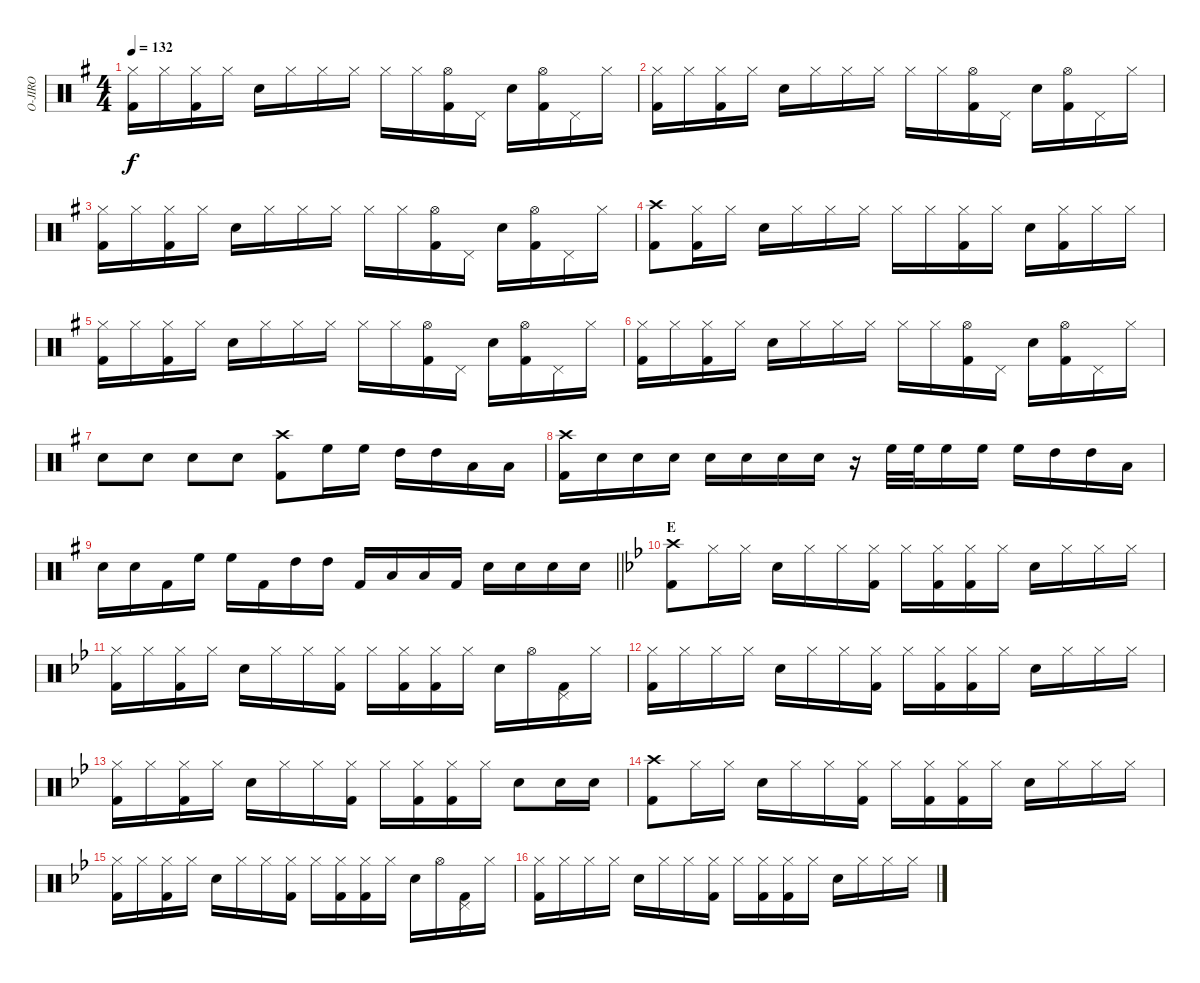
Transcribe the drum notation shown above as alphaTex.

\track ("O-JIRO" "O-JIRO") {instrument percussion}
\staff {score}
\articulation defaults
\ts (4 4)
\tempo 132
\clef neutral
\ks g
("Hi-Hat (closed)" "Kick (hit) 2").16{dy f} "Hi-Hat (closed)".16 ("Hi-Hat (closed)" "Kick (hit) 2").16 "Hi-Hat (closed)".16 "Snare (hit) 2".16 "Hi-Hat (closed)".16 "Hi-Hat (closed)".16 "Hi-Hat (closed)".16 "Hi-Hat (closed)".16 "Hi-Hat (closed)".16 ("Hi-Hat (open)" "Kick (hit) 2").16 "Pedal Hi-Hat (hit)".16 "Snare (hit) 2".16 ("Hi-Hat (open)" "Kick (hit) 2").16 "Pedal Hi-Hat (hit)".16 "Hi-Hat (closed)".16 |
("Hi-Hat (closed)" "Kick (hit) 2").16 "Hi-Hat (closed)".16 ("Hi-Hat (closed)" "Kick (hit) 2").16 "Hi-Hat (closed)".16 "Snare (hit) 2".16 "Hi-Hat (closed)".16 "Hi-Hat (closed)".16 "Hi-Hat (closed)".16 "Hi-Hat (closed)".16 "Hi-Hat (closed)".16 ("Hi-Hat (open)" "Kick (hit) 2").16 "Pedal Hi-Hat (hit)".16 "Snare (hit) 2".16 ("Hi-Hat (open)" "Kick (hit) 2").16 "Pedal Hi-Hat (hit)".16 "Hi-Hat (closed)".16 |
("Hi-Hat (closed)" "Kick (hit) 2").16 "Hi-Hat (closed)".16 ("Hi-Hat (closed)" "Kick (hit) 2").16 "Hi-Hat (closed)".16 "Snare (hit) 2".16 "Hi-Hat (closed)".16 "Hi-Hat (closed)".16 "Hi-Hat (closed)".16 "Hi-Hat (closed)".16 "Hi-Hat (closed)".16 ("Hi-Hat (open)" "Kick (hit) 2").16 "Pedal Hi-Hat (hit)".16 "Snare (hit) 2".16 ("Hi-Hat (open)" "Kick (hit) 2").16 "Pedal Hi-Hat (hit)".16 "Hi-Hat (closed)".16 |
("Crash high (hit)" "Kick (hit) 2").8 ("Hi-Hat (closed)" "Kick (hit) 2").16 "Hi-Hat (closed)".16 "Snare (hit) 2".16 "Hi-Hat (closed)".16 "Hi-Hat (closed)".16 "Hi-Hat (closed)".16 "Hi-Hat (closed)".16 "Hi-Hat (closed)".16 ("Hi-Hat (closed)" "Kick (hit) 2").16 "Hi-Hat (closed)".16 "Snare (hit) 2".16 ("Hi-Hat (closed)" "Kick (hit) 2").16 "Hi-Hat (closed)".16 "Hi-Hat (closed)".16 |
("Hi-Hat (closed)" "Kick (hit) 2").16 "Hi-Hat (closed)".16 ("Hi-Hat (closed)" "Kick (hit) 2").16 "Hi-Hat (closed)".16 "Snare (hit) 2".16 "Hi-Hat (closed)".16 "Hi-Hat (closed)".16 "Hi-Hat (closed)".16 "Hi-Hat (closed)".16 "Hi-Hat (closed)".16 ("Hi-Hat (open)" "Kick (hit) 2").16 "Pedal Hi-Hat (hit)".16 "Snare (hit) 2".16 ("Hi-Hat (open)" "Kick (hit) 2").16 "Pedal Hi-Hat (hit)".16 "Hi-Hat (closed)".16 |
("Hi-Hat (closed)" "Kick (hit) 2").16 "Hi-Hat (closed)".16 ("Hi-Hat (closed)" "Kick (hit) 2").16 "Hi-Hat (closed)".16 "Snare (hit) 2".16 "Hi-Hat (closed)".16 "Hi-Hat (closed)".16 "Hi-Hat (closed)".16 "Hi-Hat (closed)".16 "Hi-Hat (closed)".16 ("Hi-Hat (open)" "Kick (hit) 2").16 "Pedal Hi-Hat (hit)".16 "Snare (hit) 2".16 ("Hi-Hat (open)" "Kick (hit) 2").16 "Pedal Hi-Hat (hit)".16 "Hi-Hat (closed)".16 |
"Snare (hit) 2".8 "Snare (hit) 2".8 "Snare (hit) 2".8 "Snare (hit) 2".8 ("Crash high (hit)" "Kick (hit) 2").8 "High Floor Tom (hit)".16 "High Floor Tom (hit)".16 "High Tom (hit)".16 "High Tom (hit)".16 "Low Tom (hit)".16 "Low Tom (hit)".16 |
("Crash high (hit)" "Kick (hit) 2").16 "Snare (hit) 2".16 "Snare (hit) 2".16 "Snare (hit) 2".16 "Snare (hit) 2".16 "Snare (hit) 2".16 "Snare (hit) 2".16 "Snare (hit) 2".16 r.16 "High Floor Tom (hit)".32 "High Floor Tom (hit)".32 "High Floor Tom (hit)".16 "High Floor Tom (hit)".16 "High Floor Tom (hit)".16 "High Tom (hit)".16 "High Tom (hit)".16 "Low Tom (hit)".16 |
\barLineRight lightlight "Snare (hit) 2".16 "Snare (hit) 2".16 "Kick (hit) 2".16 "High Floor Tom (hit)".16 "High Floor Tom (hit)".16 "Kick (hit) 2".16 "High Tom (hit)".16 "High Tom (hit)".16 "Kick (hit) 2".16 "Low Tom (hit)".16 "Low Tom (hit)".16 "Kick (hit) 2".16 "Snare (hit) 2".16 "Snare (hit) 2".16 "Snare (hit) 2".16 "Snare (hit) 2".16
|
\section ("" "E")
\ks bb
("Crash high (hit)" "Kick (hit) 2").8 "Hi-Hat (closed)".16 "Hi-Hat (closed)".16 "Snare (hit) 2".16 "Hi-Hat (closed)".16 "Hi-Hat (closed)".16 ("Hi-Hat (closed)" "Kick (hit) 2").16 "Hi-Hat (closed)".16 ("Hi-Hat (closed)" "Kick (hit) 2").16 ("Hi-Hat (closed)" "Kick (hit) 2").16 "Hi-Hat (closed)".16 "Snare (hit) 2".16 "Hi-Hat (closed)".16 "Hi-Hat (closed)".16 "Hi-Hat (closed)".16 |
("Hi-Hat (closed)" "Kick (hit) 2").16 "Hi-Hat (closed)".16 ("Hi-Hat (closed)" "Kick (hit) 2").16 "Hi-Hat (closed)".16 "Snare (hit) 2".16 "Hi-Hat (closed)".16 "Hi-Hat (closed)".16 ("Hi-Hat (closed)" "Kick (hit) 2").16 "Hi-Hat (closed)".16 ("Hi-Hat (closed)" "Kick (hit) 2").16 ("Hi-Hat (closed)" "Kick (hit) 2").16 "Hi-Hat (closed)".16 "Snare (hit) 2".16 "Hi-Hat (open)".16 ("Pedal Hi-Hat (hit)" "Kick (hit) 2").16 "Hi-Hat (closed)".16 |
("Hi-Hat (closed)" "Kick (hit) 2").16 "Hi-Hat (closed)".16 "Hi-Hat (closed)".16 "Hi-Hat (closed)".16 "Snare (hit) 2".16 "Hi-Hat (closed)".16 "Hi-Hat (closed)".16 ("Hi-Hat (closed)" "Kick (hit) 2").16 "Hi-Hat (closed)".16 ("Hi-Hat (closed)" "Kick (hit) 2").16 ("Hi-Hat (closed)" "Kick (hit) 2").16 "Hi-Hat (closed)".16 "Snare (hit) 2".16 "Hi-Hat (closed)".16 "Hi-Hat (closed)".16 "Hi-Hat (closed)".16 |
("Hi-Hat (closed)" "Kick (hit) 2").16 "Hi-Hat (closed)".16 ("Hi-Hat (closed)" "Kick (hit) 2").16 "Hi-Hat (closed)".16 "Snare (hit) 2".16 "Hi-Hat (closed)".16 "Hi-Hat (closed)".16 ("Hi-Hat (closed)" "Kick (hit) 2").16 "Hi-Hat (closed)".16 ("Hi-Hat (closed)" "Kick (hit) 2").16 ("Hi-Hat (closed)" "Kick (hit) 2").16 "Hi-Hat (closed)".16 "Snare (hit) 2".8 "Snare (hit) 2".16 "Snare (hit) 2".16 |
("Crash high (hit)" "Kick (hit) 2").8 "Hi-Hat (closed)".16 "Hi-Hat (closed)".16 "Snare (hit) 2".16 "Hi-Hat (closed)".16 "Hi-Hat (closed)".16 ("Hi-Hat (closed)" "Kick (hit) 2").16 "Hi-Hat (closed)".16 ("Hi-Hat (closed)" "Kick (hit) 2").16 ("Hi-Hat (closed)" "Kick (hit) 2").16 "Hi-Hat (closed)".16 "Snare (hit) 2".16 "Hi-Hat (closed)".16 "Hi-Hat (closed)".16 "Hi-Hat (closed)".16 |
("Hi-Hat (closed)" "Kick (hit) 2").16 "Hi-Hat (closed)".16 ("Hi-Hat (closed)" "Kick (hit) 2").16 "Hi-Hat (closed)".16 "Snare (hit) 2".16 "Hi-Hat (closed)".16 "Hi-Hat (closed)".16 ("Hi-Hat (closed)" "Kick (hit) 2").16 "Hi-Hat (closed)".16 ("Hi-Hat (closed)" "Kick (hit) 2").16 ("Hi-Hat (closed)" "Kick (hit) 2").16 "Hi-Hat (closed)".16 "Snare (hit) 2".16 "Hi-Hat (open)".16 ("Pedal Hi-Hat (hit)" "Kick (hit) 2").16 "Hi-Hat (closed)".16 |
("Hi-Hat (closed)" "Kick (hit) 2").16 "Hi-Hat (closed)".16 "Hi-Hat (closed)".16 "Hi-Hat (closed)".16 "Snare (hit) 2".16 "Hi-Hat (closed)".16 "Hi-Hat (closed)".16 ("Hi-Hat (closed)" "Kick (hit) 2").16 "Hi-Hat (closed)".16 ("Hi-Hat (closed)" "Kick (hit) 2").16 ("Hi-Hat (closed)" "Kick (hit) 2").16 "Hi-Hat (closed)".16 "Snare (hit) 2".16 "Hi-Hat (closed)".16 "Hi-Hat (closed)".16 "Hi-Hat (closed)".16
